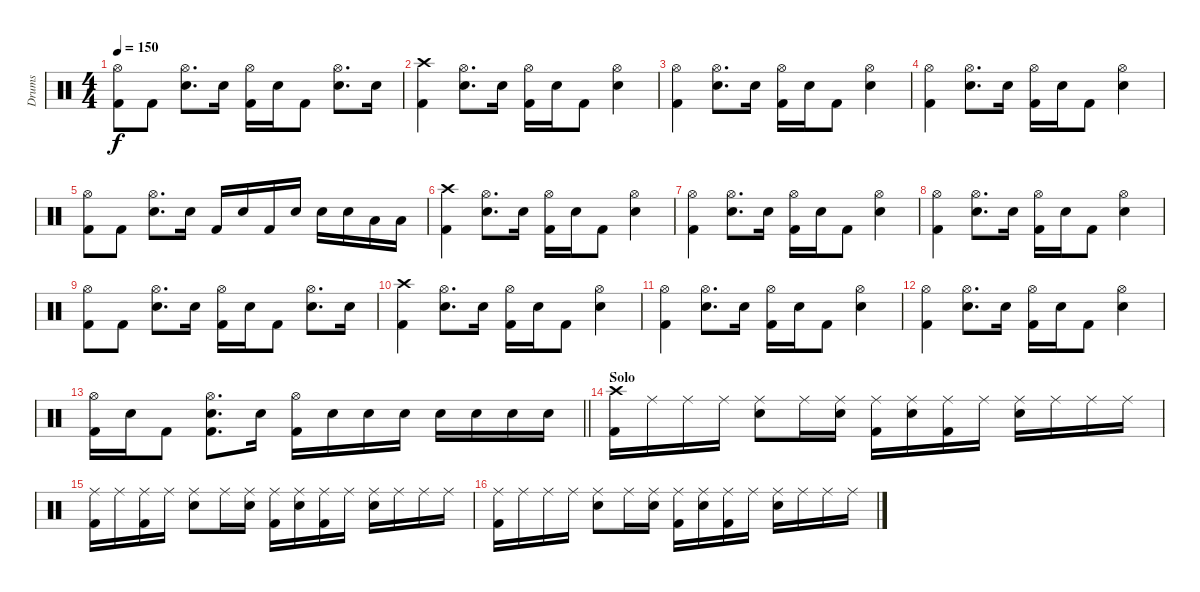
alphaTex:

\track ("Drums" "Drums") {instrument percussion}
\staff {score}
\articulation defaults
\ts (4 4)
\tempo 150
\clef neutral
\ks c
("Hi-Hat (open)" "Kick (hit) 2").8{dy f} "Kick (hit) 2".8 ("Hi-Hat (open)" "Snare (hit) 2").8{d} "Snare (hit) 2".16 ("Hi-Hat (open)" "Kick (hit) 2").16 "Snare (hit) 2".16 "Kick (hit) 2".8 ("Hi-Hat (open)" "Snare (hit) 2").8{d} "Snare (hit) 2".16 |
("Crash high (hit)" "Kick (hit) 2").4 ("Hi-Hat (open)" "Snare (hit) 2").8{d} "Snare (hit) 2".16 ("Hi-Hat (open)" "Kick (hit) 2").16 "Snare (hit) 2".16 "Kick (hit) 2".8 ("Hi-Hat (open)" "Snare (hit) 2").4 |
("Hi-Hat (open)" "Kick (hit) 2").4 ("Hi-Hat (open)" "Snare (hit) 2").8{d} "Snare (hit) 2".16 ("Hi-Hat (open)" "Kick (hit) 2").16 "Snare (hit) 2".16 "Kick (hit) 2".8 ("Hi-Hat (open)" "Snare (hit) 2").4 |
("Hi-Hat (open)" "Kick (hit) 2").4 ("Hi-Hat (open)" "Snare (hit) 2").8{d} "Snare (hit) 2".16 ("Hi-Hat (open)" "Kick (hit) 2").16 "Snare (hit) 2".16 "Kick (hit) 2".8 ("Hi-Hat (open)" "Snare (hit) 2").4 |
("Hi-Hat (open)" "Kick (hit) 2").8 "Kick (hit) 2".8 ("Hi-Hat (open)" "Snare (hit) 2").8{d} "Snare (hit) 2".16 "Kick (hit) 2".16 "Snare (hit) 2".16 "Kick (hit) 2".16 "Snare (hit) 2".16 "Snare (hit) 2".16 "Snare (hit) 2".16 "Low Tom (hit)".16 "Low Tom (hit)".16 |
("Crash high (hit)" "Kick (hit) 2").4 ("Hi-Hat (open)" "Snare (hit) 2").8{d} "Snare (hit) 2".16 ("Hi-Hat (open)" "Kick (hit) 2").16 "Snare (hit) 2".16 "Kick (hit) 2".8 ("Hi-Hat (open)" "Snare (hit) 2").4 |
("Hi-Hat (open)" "Kick (hit) 2").4 ("Hi-Hat (open)" "Snare (hit) 2").8{d} "Snare (hit) 2".16 ("Hi-Hat (open)" "Kick (hit) 2").16 "Snare (hit) 2".16 "Kick (hit) 2".8 ("Hi-Hat (open)" "Snare (hit) 2").4 |
("Hi-Hat (open)" "Kick (hit) 2").4 ("Hi-Hat (open)" "Snare (hit) 2").8{d} "Snare (hit) 2".16 ("Hi-Hat (open)" "Kick (hit) 2").16 "Snare (hit) 2".16 "Kick (hit) 2".8 ("Hi-Hat (open)" "Snare (hit) 2").4 |
("Hi-Hat (open)" "Kick (hit) 2").8 "Kick (hit) 2".8 ("Hi-Hat (open)" "Snare (hit) 2").8{d} "Snare (hit) 2".16 ("Hi-Hat (open)" "Kick (hit) 2").16 "Snare (hit) 2".16 "Kick (hit) 2".8 ("Hi-Hat (open)" "Snare (hit) 2").8{d} "Snare (hit) 2".16 |
("Crash high (hit)" "Kick (hit) 2").4 ("Hi-Hat (open)" "Snare (hit) 2").8{d} "Snare (hit) 2".16 ("Hi-Hat (open)" "Kick (hit) 2").16 "Snare (hit) 2".16 "Kick (hit) 2".8 ("Hi-Hat (open)" "Snare (hit) 2").4 |
("Hi-Hat (open)" "Kick (hit) 2").4 ("Hi-Hat (open)" "Snare (hit) 2").8{d} "Snare (hit) 2".16 ("Hi-Hat (open)" "Kick (hit) 2").16 "Snare (hit) 2".16 "Kick (hit) 2".8 ("Hi-Hat (open)" "Snare (hit) 2").4 |
("Hi-Hat (open)" "Kick (hit) 2").4 ("Hi-Hat (open)" "Snare (hit) 2").8{d} "Snare (hit) 2".16 ("Hi-Hat (open)" "Kick (hit) 2").16 "Snare (hit) 2".16 "Kick (hit) 2".8 ("Hi-Hat (open)" "Snare (hit) 2").4 |
\barLineRight lightlight
("Hi-Hat (open)" "Kick (hit) 2").16 "Snare (hit) 2".16 "Kick (hit) 2".8 ("Hi-Hat (open)" "Snare (hit) 2" "Kick (hit) 2").8{d} "Snare (hit) 2".16 ("Hi-Hat (open)" "Kick (hit) 2").16 "Snare (hit) 2".16 "Snare (hit) 2".16 "Snare (hit) 2".16 "Snare (hit) 2".16 "Snare (hit) 2".16 "Snare (hit) 2".16 "Snare (hit) 2".16 |
\section ("" "Solo")
("Crash high (hit)" "Kick (hit) 2").16 "Ride (middle)".16 "Ride (middle)".16 "Ride (middle)".16 ("Ride (middle)" "Snare (hit) 2").8 "Ride (middle)".16 ("Ride (middle)" "Snare (hit) 2").16 ("Ride (middle)" "Kick (hit) 2").16 ("Ride (middle)" "Snare (hit) 2").16 ("Ride (middle)" "Kick (hit) 2").16 "Ride (middle)".16 ("Ride (middle)" "Snare (hit) 2").16 "Ride (middle)".16 "Ride (middle)".16 "Ride (middle)".16 |
("Ride (middle)" "Kick (hit) 2").16 "Ride (middle)".16 ("Ride (middle)" "Kick (hit) 2").16 "Ride (middle)".16 ("Ride (middle)" "Snare (hit) 2").8 "Ride (middle)".16 ("Ride (middle)" "Snare (hit) 2").16 ("Ride (middle)" "Kick (hit) 2").16 ("Ride (middle)" "Snare (hit) 2").16 ("Ride (middle)" "Kick (hit) 2").16 "Ride (middle)".16 ("Ride (middle)" "Snare (hit) 2").16 "Ride (middle)".16 "Ride (middle)".16 "Ride (middle)".16 |
("Ride (middle)" "Kick (hit) 2").16 "Ride (middle)".16 "Ride (middle)".16 "Ride (middle)".16 ("Ride (middle)" "Snare (hit) 2").8 "Ride (middle)".16 ("Ride (middle)" "Snare (hit) 2").16 ("Ride (middle)" "Kick (hit) 2").16 ("Ride (middle)" "Snare (hit) 2").16 ("Ride (middle)" "Kick (hit) 2").16 "Ride (middle)".16 ("Ride (middle)" "Snare (hit) 2").16 "Ride (middle)".16 "Ride (middle)".16 "Ride (middle)".16
